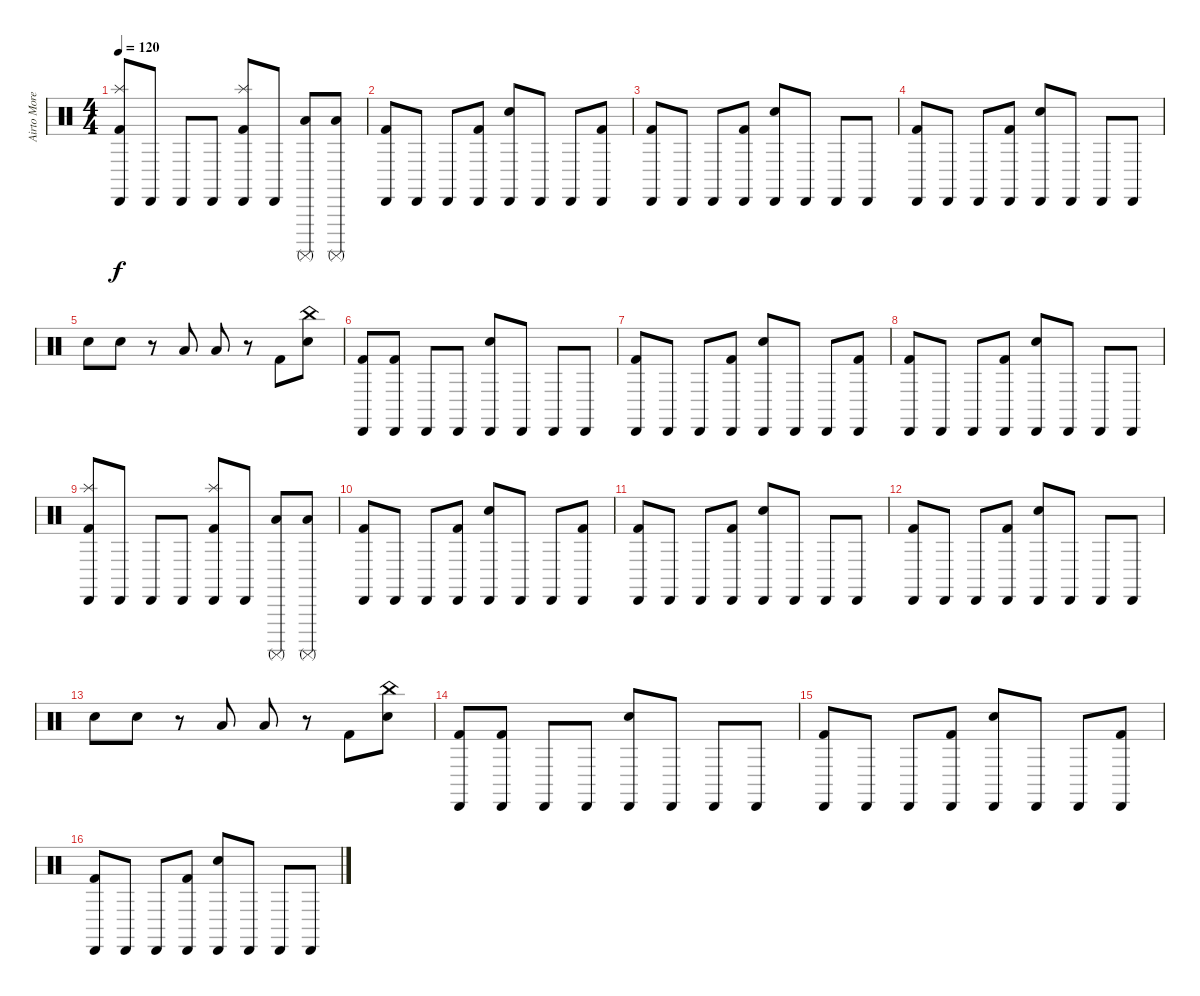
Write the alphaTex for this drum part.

\track ("Airto Moreira" "Airto More") {instrument percussion}
\staff {score}
\articulation defaults
\ts (4 4)
\tempo 120
\clef neutral
\ks c
("Cabasa (hit)" "Kick (hit) 2" "Splash (hit)").8{dy f} "Cabasa (hit)".8 "Cabasa (hit)".8 "Cabasa (hit)".8 ("Cabasa (hit)" "Kick (hit) 2" "Splash (hit)").8 "Cabasa (hit)".8 ("Low Tom (hit)" "Surdo (mute)").8 ("Low Tom (hit)" "Surdo (mute)").8 |
("Cabasa (hit)" "Kick (hit) 2").8 "Cabasa (hit)".8 "Cabasa (hit)".8 ("Cabasa (hit)" "Kick (hit) 2").8 ("Cabasa (hit)" "Electric Snare (hit)").8 "Cabasa (hit)".8 "Cabasa (hit)".8 ("Cabasa (hit)" "Kick (hit) 2").8 |
("Cabasa (hit)" "Kick (hit) 2").8 "Cabasa (hit)".8 "Cabasa (hit)".8 ("Cabasa (hit)" "Kick (hit) 2").8 ("Cabasa (hit)" "Electric Snare (hit)").8 "Cabasa (hit)".8 "Cabasa (hit)".8 "Cabasa (hit)".8 |
("Cabasa (hit)" "Kick (hit) 2").8 "Cabasa (hit)".8 "Cabasa (hit)".8 ("Cabasa (hit)" "Kick (hit) 2").8 ("Cabasa (hit)" "Electric Snare (hit)").8 "Cabasa (hit)".8 "Cabasa (hit)".8 "Cabasa (hit)".8 |
"Electric Snare (hit)".8 "Electric Snare (hit)".8 r.8 "Low Tom (hit)".8 "Low Tom (hit)".8 r.8 "Kick (hit) 2".8 ("Electric Snare (hit)" "China (hit)").8 |
("Cabasa (hit)" "Kick (hit) 2").8 ("Cabasa (hit)" "Kick (hit) 2").8 "Cabasa (hit)".8 "Cabasa (hit)".8 ("Cabasa (hit)" "Electric Snare (hit)").8 "Cabasa (hit)".8 "Cabasa (hit)".8 "Cabasa (hit)".8 |
("Cabasa (hit)" "Kick (hit) 2").8 "Cabasa (hit)".8 "Cabasa (hit)".8 ("Cabasa (hit)" "Kick (hit) 2").8 ("Cabasa (hit)" "Electric Snare (hit)").8 "Cabasa (hit)".8 "Cabasa (hit)".8 ("Cabasa (hit)" "Kick (hit) 2").8 |
("Cabasa (hit)" "Kick (hit) 2").8 "Cabasa (hit)".8 "Cabasa (hit)".8 ("Cabasa (hit)" "Kick (hit) 2").8 ("Cabasa (hit)" "Electric Snare (hit)").8 "Cabasa (hit)".8 "Cabasa (hit)".8 "Cabasa (hit)".8 |
("Cabasa (hit)" "Kick (hit) 2" "Splash (hit)").8 "Cabasa (hit)".8 "Cabasa (hit)".8 "Cabasa (hit)".8 ("Cabasa (hit)" "Kick (hit) 2" "Splash (hit)").8 "Cabasa (hit)".8 ("Low Tom (hit)" "Surdo (mute)").8 ("Low Tom (hit)" "Surdo (mute)").8 |
("Cabasa (hit)" "Kick (hit) 2").8 "Cabasa (hit)".8 "Cabasa (hit)".8 ("Cabasa (hit)" "Kick (hit) 2").8 ("Cabasa (hit)" "Electric Snare (hit)").8 "Cabasa (hit)".8 "Cabasa (hit)".8 ("Cabasa (hit)" "Kick (hit) 2").8 |
("Cabasa (hit)" "Kick (hit) 2").8 "Cabasa (hit)".8 "Cabasa (hit)".8 ("Cabasa (hit)" "Kick (hit) 2").8 ("Cabasa (hit)" "Electric Snare (hit)").8 "Cabasa (hit)".8 "Cabasa (hit)".8 "Cabasa (hit)".8 |
("Cabasa (hit)" "Kick (hit) 2").8 "Cabasa (hit)".8 "Cabasa (hit)".8 ("Cabasa (hit)" "Kick (hit) 2").8 ("Cabasa (hit)" "Electric Snare (hit)").8 "Cabasa (hit)".8 "Cabasa (hit)".8 "Cabasa (hit)".8 |
"Electric Snare (hit)".8 "Electric Snare (hit)".8 r.8 "Low Tom (hit)".8 "Low Tom (hit)".8 r.8 "Kick (hit) 2".8 ("Electric Snare (hit)" "China (hit)").8 |
("Cabasa (hit)" "Kick (hit) 2").8 ("Cabasa (hit)" "Kick (hit) 2").8 "Cabasa (hit)".8 "Cabasa (hit)".8 ("Cabasa (hit)" "Electric Snare (hit)").8 "Cabasa (hit)".8 "Cabasa (hit)".8 "Cabasa (hit)".8 |
("Cabasa (hit)" "Kick (hit) 2").8{volume 11} "Cabasa (hit)".8 "Cabasa (hit)".8 ("Cabasa (hit)" "Kick (hit) 2").8 ("Cabasa (hit)" "Electric Snare (hit)").8 "Cabasa (hit)".8 "Cabasa (hit)".8 ("Cabasa (hit)" "Kick (hit) 2").8 |
("Cabasa (hit)" "Kick (hit) 2").8{volume 9} "Cabasa (hit)".8 "Cabasa (hit)".8 ("Cabasa (hit)" "Kick (hit) 2").8 ("Cabasa (hit)" "Electric Snare (hit)").8 "Cabasa (hit)".8 "Cabasa (hit)".8 "Cabasa (hit)".8
